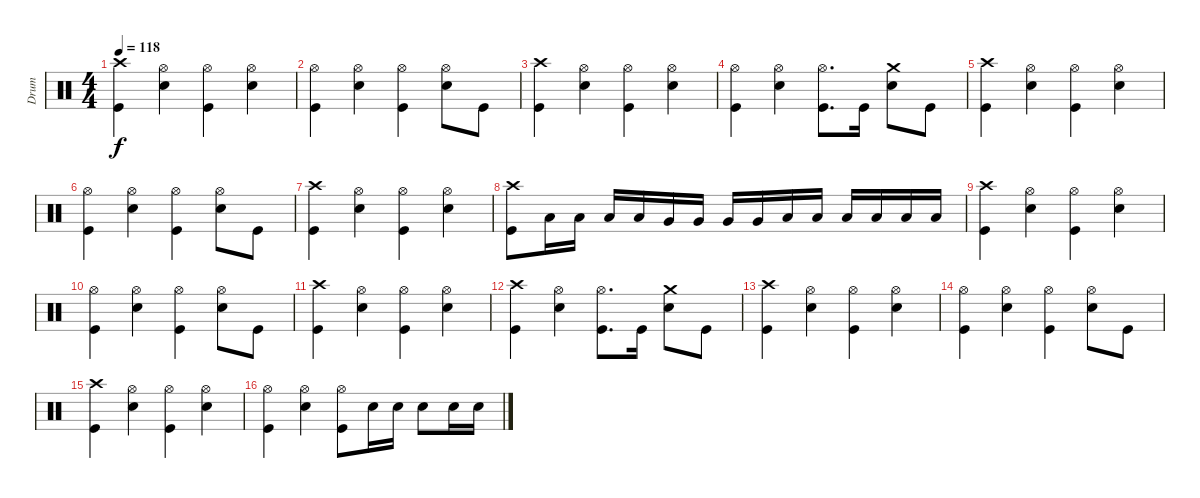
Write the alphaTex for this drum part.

\track ("Drum" "Drum") {instrument percussion}
\staff {score}
\articulation defaults
\ts (4 4)
\tempo 118
\clef neutral
\ks c
("Kick (hit)" "Crash high (hit)").4{dy f} ("Hi-Hat (open)" "Snare (hit) 2").4 ("Kick (hit)" "Hi-Hat (open)").4 ("Hi-Hat (open)" "Snare (hit) 2").4 |
("Kick (hit)" "Hi-Hat (open)").4 ("Hi-Hat (open)" "Snare (hit) 2").4 ("Kick (hit)" "Hi-Hat (open)").4 ("Hi-Hat (open)" "Snare (hit) 2").8 "Kick (hit)".8 |
("Kick (hit)" "Crash high (hit)").4 ("Hi-Hat (open)" "Snare (hit) 2").4 ("Kick (hit)" "Hi-Hat (open)").4 ("Hi-Hat (open)" "Snare (hit) 2").4 |
("Kick (hit)" "Hi-Hat (open)").4 ("Hi-Hat (open)" "Snare (hit) 2").4 ("Kick (hit)" "Hi-Hat (open)").8{d} "Kick (hit)".16 ("Crash medium (hit)" "Snare (hit) 2").8 "Kick (hit)".8 |
("Kick (hit)" "Crash high (hit)").4 ("Hi-Hat (open)" "Snare (hit) 2").4 ("Kick (hit)" "Hi-Hat (open)").4 ("Hi-Hat (open)" "Snare (hit) 2").4 |
("Kick (hit)" "Hi-Hat (open)").4 ("Hi-Hat (open)" "Snare (hit) 2").4 ("Kick (hit)" "Hi-Hat (open)").4 ("Hi-Hat (open)" "Snare (hit) 2").8 "Kick (hit)".8 |
("Kick (hit)" "Crash high (hit)").4 ("Hi-Hat (open)" "Snare (hit) 2").4 ("Kick (hit)" "Hi-Hat (open)").4 ("Hi-Hat (open)" "Snare (hit) 2").4 |
("Kick (hit)" "Crash high (hit)").8 "Low Tom (hit)".16 "Low Tom (hit)".16 "Low Tom (hit)".16 "Low Tom (hit)".16 "Very Low Tom (hit)".16 "Very Low Tom (hit)".16 "Very Low Tom (hit)".16 "Very Low Tom (hit)".16 "Low Floor Tom (hit)".16 "Low Floor Tom (hit)".16 "Low Floor Tom (hit)".16 "Low Floor Tom (hit)".16 "Low Floor Tom (hit)".16 "Low Floor Tom (hit)".16 |
("Kick (hit)" "Crash high (hit)").4 ("Hi-Hat (open)" "Snare (hit) 2").4 ("Kick (hit)" "Hi-Hat (open)").4 ("Hi-Hat (open)" "Snare (hit) 2").4 |
("Kick (hit)" "Hi-Hat (open)").4 ("Hi-Hat (open)" "Snare (hit) 2").4 ("Kick (hit)" "Hi-Hat (open)").4 ("Hi-Hat (open)" "Snare (hit) 2").8 "Kick (hit)".8 |
("Kick (hit)" "Crash high (hit)").4 ("Hi-Hat (open)" "Snare (hit) 2").4 ("Kick (hit)" "Hi-Hat (open)").4 ("Hi-Hat (open)" "Snare (hit) 2").4 |
("Kick (hit)" "Crash high (hit)").4 ("Hi-Hat (open)" "Snare (hit) 2").4 ("Kick (hit)" "Hi-Hat (open)").8{d} "Kick (hit)".16 ("Crash medium (hit)" "Snare (hit) 2").8 "Kick (hit)".8 |
("Kick (hit)" "Crash high (hit)").4 ("Hi-Hat (open)" "Snare (hit) 2").4 ("Kick (hit)" "Hi-Hat (open)").4 ("Hi-Hat (open)" "Snare (hit) 2").4 |
("Kick (hit)" "Hi-Hat (open)").4 ("Hi-Hat (open)" "Snare (hit) 2").4 ("Kick (hit)" "Hi-Hat (open)").4 ("Hi-Hat (open)" "Snare (hit) 2").8 "Kick (hit)".8 |
("Kick (hit)" "Crash high (hit)").4 ("Hi-Hat (open)" "Snare (hit) 2").4 ("Kick (hit)" "Hi-Hat (open)").4 ("Hi-Hat (open)" "Snare (hit) 2").4 |
("Kick (hit)" "Hi-Hat (open)").4 ("Hi-Hat (open)" "Snare (hit) 2").4 ("Kick (hit)" "Hi-Hat (open)").8 "Snare (hit) 2".16 "Snare (hit) 2".16 "Snare (hit) 2".8 "Snare (hit) 2".16 "Snare (hit) 2".16
